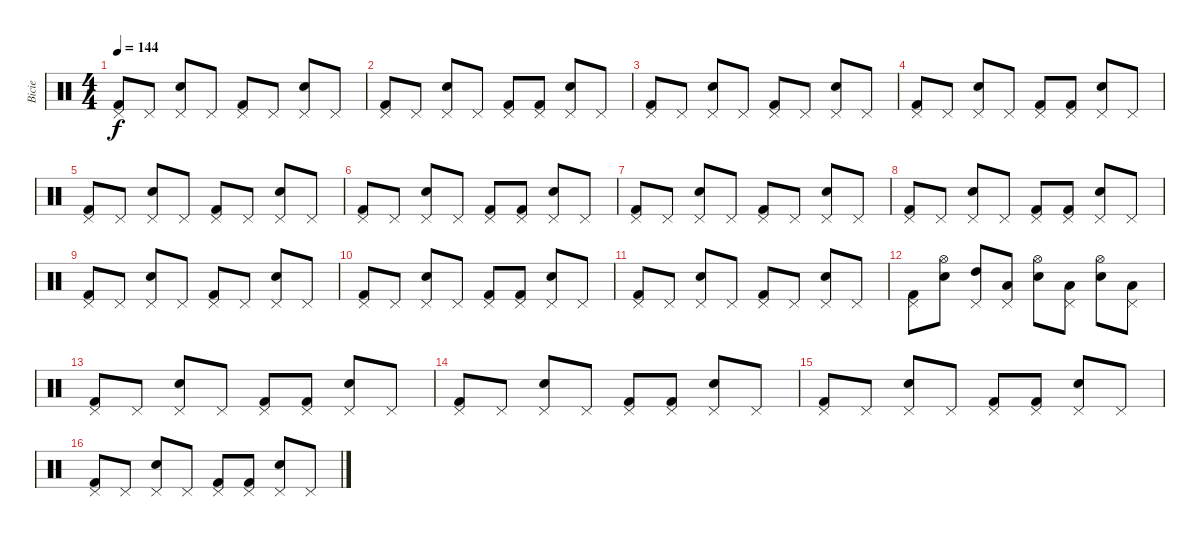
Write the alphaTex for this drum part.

\track ("Bicie" "Bicie") {instrument percussion}
\staff {score}
\articulation defaults
\ts (4 4)
\tempo 144
\clef neutral
\ks c
("Pedal Hi-Hat (hit)" "Kick (hit) 2").8{dy f} "Pedal Hi-Hat (hit)".8 ("Pedal Hi-Hat (hit)" "Snare (hit) 2").8 "Pedal Hi-Hat (hit)".8 ("Pedal Hi-Hat (hit)" "Kick (hit) 2").8 "Pedal Hi-Hat (hit)".8 ("Pedal Hi-Hat (hit)" "Snare (hit) 2").8 "Pedal Hi-Hat (hit)".8 |
("Pedal Hi-Hat (hit)" "Kick (hit) 2").8 "Pedal Hi-Hat (hit)".8 ("Pedal Hi-Hat (hit)" "Snare (hit) 2").8 "Pedal Hi-Hat (hit)".8 ("Pedal Hi-Hat (hit)" "Kick (hit) 2").8 ("Pedal Hi-Hat (hit)" "Kick (hit) 2").8 ("Pedal Hi-Hat (hit)" "Snare (hit) 2").8 "Pedal Hi-Hat (hit)".8 |
("Pedal Hi-Hat (hit)" "Kick (hit) 2").8 "Pedal Hi-Hat (hit)".8 ("Pedal Hi-Hat (hit)" "Snare (hit) 2").8 "Pedal Hi-Hat (hit)".8 ("Pedal Hi-Hat (hit)" "Kick (hit) 2").8 "Pedal Hi-Hat (hit)".8 ("Pedal Hi-Hat (hit)" "Snare (hit) 2").8 "Pedal Hi-Hat (hit)".8 |
("Pedal Hi-Hat (hit)" "Kick (hit) 2").8 "Pedal Hi-Hat (hit)".8 ("Pedal Hi-Hat (hit)" "Snare (hit) 2").8 "Pedal Hi-Hat (hit)".8 ("Pedal Hi-Hat (hit)" "Kick (hit) 2").8 ("Pedal Hi-Hat (hit)" "Kick (hit) 2").8 ("Pedal Hi-Hat (hit)" "Snare (hit) 2").8 "Pedal Hi-Hat (hit)".8 |
("Pedal Hi-Hat (hit)" "Kick (hit) 2").8 "Pedal Hi-Hat (hit)".8 ("Pedal Hi-Hat (hit)" "Snare (hit) 2").8 "Pedal Hi-Hat (hit)".8 ("Pedal Hi-Hat (hit)" "Kick (hit) 2").8 "Pedal Hi-Hat (hit)".8 ("Pedal Hi-Hat (hit)" "Snare (hit) 2").8 "Pedal Hi-Hat (hit)".8 |
("Pedal Hi-Hat (hit)" "Kick (hit) 2").8 "Pedal Hi-Hat (hit)".8 ("Pedal Hi-Hat (hit)" "Snare (hit) 2").8 "Pedal Hi-Hat (hit)".8 ("Pedal Hi-Hat (hit)" "Kick (hit) 2").8 ("Pedal Hi-Hat (hit)" "Kick (hit) 2").8 ("Pedal Hi-Hat (hit)" "Snare (hit) 2").8 "Pedal Hi-Hat (hit)".8 |
("Pedal Hi-Hat (hit)" "Kick (hit) 2").8 "Pedal Hi-Hat (hit)".8 ("Pedal Hi-Hat (hit)" "Snare (hit) 2").8 "Pedal Hi-Hat (hit)".8 ("Pedal Hi-Hat (hit)" "Kick (hit) 2").8 "Pedal Hi-Hat (hit)".8 ("Pedal Hi-Hat (hit)" "Snare (hit) 2").8 "Pedal Hi-Hat (hit)".8 |
("Pedal Hi-Hat (hit)" "Kick (hit) 2").8 "Pedal Hi-Hat (hit)".8 ("Pedal Hi-Hat (hit)" "Snare (hit) 2").8 "Pedal Hi-Hat (hit)".8 ("Pedal Hi-Hat (hit)" "Kick (hit) 2").8 ("Pedal Hi-Hat (hit)" "Kick (hit) 2").8 ("Pedal Hi-Hat (hit)" "Snare (hit) 2").8 "Pedal Hi-Hat (hit)".8 |
("Pedal Hi-Hat (hit)" "Kick (hit) 2").8 "Pedal Hi-Hat (hit)".8 ("Pedal Hi-Hat (hit)" "Snare (hit) 2").8 "Pedal Hi-Hat (hit)".8 ("Pedal Hi-Hat (hit)" "Kick (hit) 2").8 "Pedal Hi-Hat (hit)".8 ("Pedal Hi-Hat (hit)" "Snare (hit) 2").8 "Pedal Hi-Hat (hit)".8 |
("Pedal Hi-Hat (hit)" "Kick (hit) 2").8 "Pedal Hi-Hat (hit)".8 ("Pedal Hi-Hat (hit)" "Snare (hit) 2").8 "Pedal Hi-Hat (hit)".8 ("Pedal Hi-Hat (hit)" "Kick (hit) 2").8 ("Pedal Hi-Hat (hit)" "Kick (hit) 2").8 ("Pedal Hi-Hat (hit)" "Snare (hit) 2").8 "Pedal Hi-Hat (hit)".8 |
("Pedal Hi-Hat (hit)" "Kick (hit) 2").8 "Pedal Hi-Hat (hit)".8 ("Pedal Hi-Hat (hit)" "Snare (hit) 2").8 "Pedal Hi-Hat (hit)".8 ("Pedal Hi-Hat (hit)" "Kick (hit) 2").8 "Pedal Hi-Hat (hit)".8 ("Pedal Hi-Hat (hit)" "Snare (hit) 2").8 "Pedal Hi-Hat (hit)".8 |
("Pedal Hi-Hat (hit)" "Kick (hit) 2").8 ("Hi-Hat (open)" "Snare (hit) 2").8 ("Pedal Hi-Hat (hit)" "High Tom (hit)").8 ("Pedal Hi-Hat (hit)" "Low Tom (hit)").8 ("Hi-Hat (open)" "Snare (hit) 2").8 ("Pedal Hi-Hat (hit)" "Low Tom (hit)").8 ("Hi-Hat (open)" "Snare (hit) 2").8 ("Pedal Hi-Hat (hit)" "Low Tom (hit)").8 |
("Pedal Hi-Hat (hit)" "Kick (hit) 2").8 "Pedal Hi-Hat (hit)".8 ("Pedal Hi-Hat (hit)" "Snare (hit) 2").8 "Pedal Hi-Hat (hit)".8 ("Pedal Hi-Hat (hit)" "Kick (hit) 2").8 ("Pedal Hi-Hat (hit)" "Kick (hit) 2").8 ("Pedal Hi-Hat (hit)" "Snare (hit) 2").8 "Pedal Hi-Hat (hit)".8 |
("Pedal Hi-Hat (hit)" "Kick (hit) 2").8 "Pedal Hi-Hat (hit)".8 ("Pedal Hi-Hat (hit)" "Snare (hit) 2").8 "Pedal Hi-Hat (hit)".8 ("Pedal Hi-Hat (hit)" "Kick (hit) 2").8 ("Pedal Hi-Hat (hit)" "Kick (hit) 2").8 ("Pedal Hi-Hat (hit)" "Snare (hit) 2").8 "Pedal Hi-Hat (hit)".8 |
("Pedal Hi-Hat (hit)" "Kick (hit) 2").8 "Pedal Hi-Hat (hit)".8 ("Pedal Hi-Hat (hit)" "Snare (hit) 2").8 "Pedal Hi-Hat (hit)".8 ("Pedal Hi-Hat (hit)" "Kick (hit) 2").8 ("Pedal Hi-Hat (hit)" "Kick (hit) 2").8 ("Pedal Hi-Hat (hit)" "Snare (hit) 2").8 "Pedal Hi-Hat (hit)".8 |
("Pedal Hi-Hat (hit)" "Kick (hit) 2").8 "Pedal Hi-Hat (hit)".8 ("Pedal Hi-Hat (hit)" "Snare (hit) 2").8 "Pedal Hi-Hat (hit)".8 ("Pedal Hi-Hat (hit)" "Kick (hit) 2").8 ("Pedal Hi-Hat (hit)" "Kick (hit) 2").8 ("Pedal Hi-Hat (hit)" "Snare (hit) 2").8 "Pedal Hi-Hat (hit)".8
